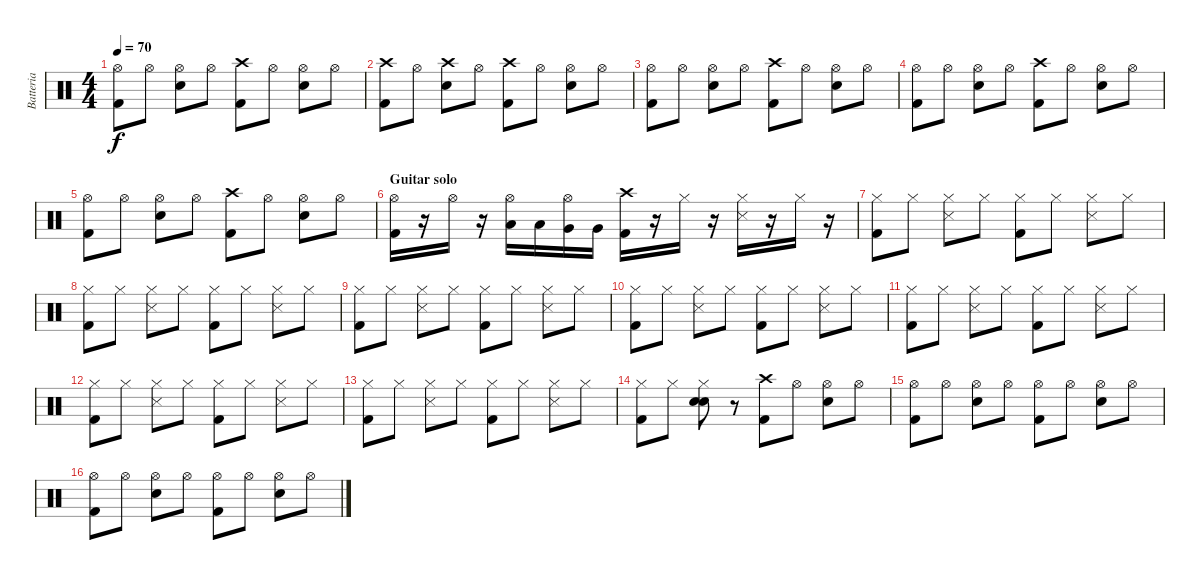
\track ("Batteria" "Batteria") {instrument percussion}
\staff {score}
\articulation defaults
\ts (4 4)
\tempo 70
\clef neutral
\ks c
("Kick (hit) 2" "Hi-Hat (open)").8{dy f} "Hi-Hat (open)".8 ("Electric Snare (hit)" "Hi-Hat (open)").8 "Hi-Hat (open)".8 ("Kick (hit) 2" "Crash high (hit)").8 "Hi-Hat (open)".8 ("Electric Snare (hit)" "Hi-Hat (open)").8 "Hi-Hat (open)".8 |
("Kick (hit) 2" "Crash high (hit)").8 "Hi-Hat (open)".8 ("Electric Snare (hit)" "Crash high (hit)").8 "Hi-Hat (open)".8 ("Kick (hit) 2" "Crash high (hit)").8 "Hi-Hat (open)".8 ("Electric Snare (hit)" "Hi-Hat (open)").8 "Hi-Hat (open)".8 |
("Kick (hit) 2" "Hi-Hat (open)").8 "Hi-Hat (open)".8 ("Electric Snare (hit)" "Hi-Hat (open)").8 "Hi-Hat (open)".8 ("Kick (hit) 2" "Crash high (hit)").8 "Hi-Hat (open)".8 ("Electric Snare (hit)" "Hi-Hat (open)").8 "Hi-Hat (open)".8 |
("Kick (hit) 2" "Hi-Hat (open)").8 "Hi-Hat (open)".8 ("Electric Snare (hit)" "Hi-Hat (open)").8 "Hi-Hat (open)".8 ("Kick (hit) 2" "Crash high (hit)").8 "Hi-Hat (open)".8 ("Electric Snare (hit)" "Hi-Hat (open)").8 "Hi-Hat (open)".8 |
("Kick (hit) 2" "Hi-Hat (open)").8 "Hi-Hat (open)".8 ("Electric Snare (hit)" "Hi-Hat (open)").8 "Hi-Hat (open)".8 ("Kick (hit) 2" "Crash high (hit)").8 "Hi-Hat (open)".8 ("Electric Snare (hit)" "Hi-Hat (open)").8 "Hi-Hat (open)".8 |
\section ("" "Guitar solo")
("Kick (hit) 2" "Hi-Hat (open)").16 r.16 "Hi-Hat (open)".16 r.16 ("Low Tom (hit)" "Hi-Hat (open)").16 "Low Tom (hit)".16 ("Very Low Tom (hit)" "Hi-Hat (open)").16 "Very Low Tom (hit)".16 ("Kick (hit) 2" "Crash high (hit)").16 r.16 "Hi-Hat (closed)".16 r.16 ("Snare (side stick) 3" "Hi-Hat (closed)").16 r.16 "Hi-Hat (closed)".16 r.16 |
("Kick (hit) 2" "Hi-Hat (closed)").8 "Hi-Hat (closed)".8 ("Snare (side stick) 3" "Hi-Hat (closed)").8 "Hi-Hat (closed)".8 ("Kick (hit) 2" "Hi-Hat (closed)").8 "Hi-Hat (closed)".8 ("Snare (side stick) 3" "Hi-Hat (closed)").8 "Hi-Hat (closed)".8 |
("Kick (hit) 2" "Hi-Hat (closed)").8 "Hi-Hat (closed)".8 ("Snare (side stick) 3" "Hi-Hat (closed)").8 "Hi-Hat (closed)".8 ("Kick (hit) 2" "Hi-Hat (closed)").8 "Hi-Hat (closed)".8 ("Snare (side stick) 3" "Hi-Hat (closed)").8 "Hi-Hat (closed)".8 |
("Kick (hit) 2" "Hi-Hat (closed)").8 "Hi-Hat (closed)".8 ("Snare (side stick) 3" "Hi-Hat (closed)").8 "Hi-Hat (closed)".8 ("Kick (hit) 2" "Hi-Hat (closed)").8 "Hi-Hat (closed)".8 ("Snare (side stick) 3" "Hi-Hat (closed)").8 "Hi-Hat (closed)".8 |
("Kick (hit) 2" "Hi-Hat (closed)").8 "Hi-Hat (closed)".8 ("Snare (side stick) 3" "Hi-Hat (closed)").8 "Hi-Hat (closed)".8 ("Kick (hit) 2" "Hi-Hat (closed)").8 "Hi-Hat (closed)".8 ("Snare (side stick) 3" "Hi-Hat (closed)").8 "Hi-Hat (closed)".8 |
("Kick (hit) 2" "Hi-Hat (closed)").8 "Hi-Hat (closed)".8 ("Snare (side stick) 3" "Hi-Hat (closed)").8 "Hi-Hat (closed)".8 ("Kick (hit) 2" "Hi-Hat (closed)").8 "Hi-Hat (closed)".8 ("Snare (side stick) 3" "Hi-Hat (closed)").8 "Hi-Hat (closed)".8 |
("Kick (hit) 2" "Hi-Hat (closed)").8 "Hi-Hat (closed)".8 ("Snare (side stick) 3" "Hi-Hat (closed)").8 "Hi-Hat (closed)".8 ("Kick (hit) 2" "Hi-Hat (closed)").8 "Hi-Hat (closed)".8 ("Snare (side stick) 3" "Hi-Hat (closed)").8 "Hi-Hat (closed)".8 |
("Kick (hit) 2" "Hi-Hat (closed)").8 "Hi-Hat (closed)".8 ("Snare (side stick) 3" "Hi-Hat (closed)").8 "Hi-Hat (closed)".8 ("Kick (hit) 2" "Hi-Hat (closed)").8 "Hi-Hat (closed)".8 ("Snare (side stick) 3" "Hi-Hat (closed)").8 "Hi-Hat (closed)".8 |
("Kick (hit) 2" "Hi-Hat (closed)").8 "Hi-Hat (closed)".8 ("Electric Snare (hit)" "Snare (hit) 2" "Hi-Hat (closed)").8 r.8 ("Kick (hit) 2" "Crash high (hit)").8 "Hi-Hat (open)".8 ("Electric Snare (hit)" "Hi-Hat (open)").8 "Hi-Hat (open)".8 |
("Kick (hit) 2" "Hi-Hat (open)").8 "Hi-Hat (open)".8 ("Electric Snare (hit)" "Hi-Hat (open)").8 "Hi-Hat (open)".8 ("Kick (hit) 2" "Hi-Hat (open)").8 "Hi-Hat (open)".8 ("Electric Snare (hit)" "Hi-Hat (open)").8 "Hi-Hat (open)".8 |
("Kick (hit) 2" "Hi-Hat (open)").8 "Hi-Hat (open)".8 ("Electric Snare (hit)" "Hi-Hat (open)").8 "Hi-Hat (open)".8 ("Kick (hit) 2" "Hi-Hat (open)").8 "Hi-Hat (open)".8 ("Electric Snare (hit)" "Hi-Hat (open)").8 "Hi-Hat (open)".8
